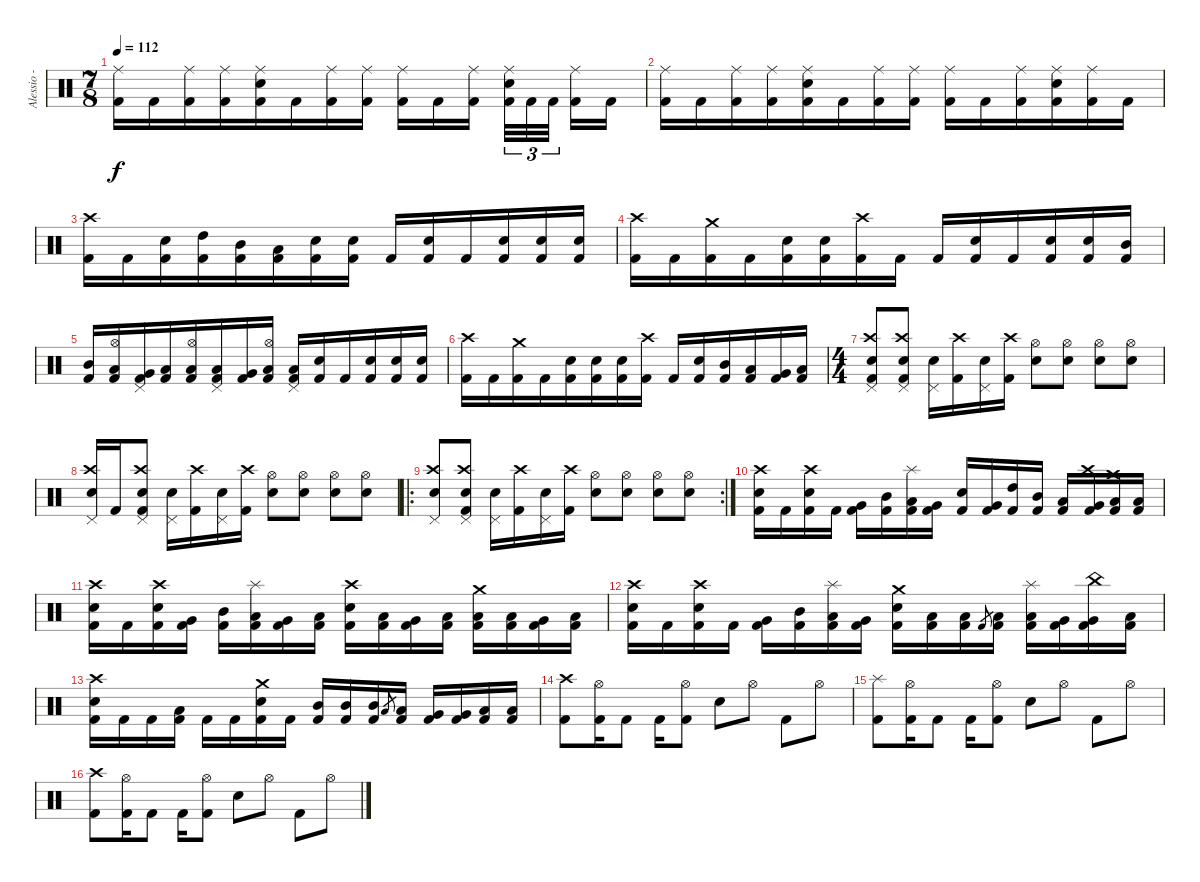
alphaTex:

\track ("Alessio - Drums" "Alessio - ") {instrument percussion}
\staff {score}
\articulation defaults
\ts (7 8)
\tempo 112
\clef neutral
\ks c
("Ride (middle)" "Kick (hit) 2").16{dy f} "Kick (hit) 2".16 ("Ride (middle)" "Kick (hit) 2").16 ("Ride (middle)" "Kick (hit) 2").16 ("Ride (middle)" "Electric Snare (hit)" "Kick (hit) 2").16 "Kick (hit) 2".16 ("Ride (middle)" "Kick (hit) 2").16 ("Ride (middle)" "Kick (hit) 2").16 ("Ride (middle)" "Kick (hit) 2").16 "Kick (hit) 2".16 ("Ride (middle)" "Kick (hit) 2").16 ("Ride (middle)" "Electric Snare (hit)" "Kick (hit) 2").32{tu (3 2)} "Kick (hit) 2".32{tu (3 2)} "Kick (hit) 2".32{tu (3 2)} ("Ride (middle)" "Kick (hit) 2").16 "Kick (hit) 2".16 |
("Ride (middle)" "Kick (hit) 2").16 "Kick (hit) 2".16 ("Ride (middle)" "Kick (hit) 2").16 ("Ride (middle)" "Kick (hit) 2").16 ("Ride (middle)" "Electric Snare (hit)" "Kick (hit) 2").16 "Kick (hit) 2".16 ("Ride (middle)" "Kick (hit) 2").16 ("Ride (middle)" "Kick (hit) 2").16 ("Ride (middle)" "Kick (hit) 2").16 "Kick (hit) 2".16 ("Ride (middle)" "Kick (hit) 2").16 ("Ride (middle)" "Electric Snare (hit)" "Kick (hit) 2").16 ("Ride (middle)" "Kick (hit) 2").16 "Kick (hit) 2".16 |
("Crash high (hit)" "Kick (hit) 2").16 "Kick (hit) 2".16 ("Electric Snare (hit)" "Kick (hit) 2").16 ("High Tom (hit)" "Kick (hit) 2").16 ("Mid Tom (hit)" "Kick (hit) 2").16 ("Low Tom (hit)" "Kick (hit) 2").16 ("Electric Snare (hit)" "Kick (hit) 2").16 ("Electric Snare (hit)" "Kick (hit) 2").16 "Kick (hit) 2".16 ("Electric Snare (hit)" "Kick (hit) 2").16 "Kick (hit) 2".16 ("Electric Snare (hit)" "Kick (hit) 2").16 ("Electric Snare (hit)" "Kick (hit) 2").16 ("Electric Snare (hit)" "Kick (hit) 2").16 |
("Crash high (hit)" "Kick (hit) 2").16 "Kick (hit) 2".16 ("Crash medium (hit)" "Kick (hit) 2").16 "Kick (hit) 2".16 ("Electric Snare (hit)" "Kick (hit) 2").16 ("Electric Snare (hit)" "Kick (hit) 2").16 ("Crash high (hit)" "Kick (hit) 2").16 "Kick (hit) 2".16 "Kick (hit) 2".16 ("Electric Snare (hit)" "Kick (hit) 2").16 "Kick (hit) 2".16 ("Electric Snare (hit)" "Kick (hit) 2").16 ("Electric Snare (hit)" "Kick (hit) 2").16 ("Mid Tom (hit)" "Kick (hit) 2").16 |
("Mid Tom (hit)" "Kick (hit) 2").16 ("Hi-Hat (open)" "Low Floor Tom (hit)" "Kick (hit) 2").16 ("Pedal Hi-Hat (hit)" "Very Low Tom (hit)" "Kick (hit) 2").16 ("Low Floor Tom (hit)" "Kick (hit) 2").16 ("Hi-Hat (open)" "Low Floor Tom (hit)" "Kick (hit) 2").16 ("Pedal Hi-Hat (hit)" "Low Floor Tom (hit)" "Kick (hit) 2").16 ("Very Low Tom (hit)" "Kick (hit) 2").16 ("Hi-Hat (open)" "Low Floor Tom (hit)" "Kick (hit) 2").16 ("Pedal Hi-Hat (hit)" "Low Floor Tom (hit)" "Kick (hit) 2").16 ("Electric Snare (hit)" "Kick (hit) 2").16 "Kick (hit) 2".16 ("Electric Snare (hit)" "Kick (hit) 2").16 ("Electric Snare (hit)" "Kick (hit) 2").16 ("Electric Snare (hit)" "Kick (hit) 2").16 |
("Crash high (hit)" "Kick (hit) 2").16 "Kick (hit) 2".16 ("Crash medium (hit)" "Kick (hit) 2").16 "Kick (hit) 2".16 ("Electric Snare (hit)" "Kick (hit) 2").16 ("Electric Snare (hit)" "Kick (hit) 2").16 ("Electric Snare (hit)" "Kick (hit) 2").16 ("Crash high (hit)" "Kick (hit) 2").16 "Kick (hit) 2".16 ("Electric Snare (hit)" "Kick (hit) 2").16 ("Mid Tom (hit)" "Kick (hit) 2").16 ("Low Tom (hit)" "Kick (hit) 2").16 ("Very Low Tom (hit)" "Kick (hit) 2").16 ("Low Tom (hit)" "Kick (hit) 2").16 |
\ts (4 4)
("Pedal Hi-Hat (hit)" "Crash high (hit)" "Electric Snare (hit)" "Kick (hit) 2").8 ("Pedal Hi-Hat (hit)" "Crash high (hit)" "Electric Snare (hit)" "Kick (hit) 2").8 ("Pedal Hi-Hat (hit)" "Electric Snare (hit)").16 ("Crash high (hit)" "Kick (hit) 2").16 ("Pedal Hi-Hat (hit)" "Electric Snare (hit)").16 ("Crash high (hit)" "Kick (hit) 2").16 ("Hi-Hat (open)" "Electric Snare (hit)").8 ("Hi-Hat (open)" "Electric Snare (hit)").8 ("Hi-Hat (open)" "Electric Snare (hit)").8 ("Hi-Hat (open)" "Electric Snare (hit)").8 |
("Pedal Hi-Hat (hit)" "Crash high (hit)" "Electric Snare (hit)").16 "Kick (hit) 2".16 ("Pedal Hi-Hat (hit)" "Crash high (hit)" "Electric Snare (hit)" "Kick (hit) 2").8 ("Pedal Hi-Hat (hit)" "Electric Snare (hit)").16 ("Crash high (hit)" "Kick (hit) 2").16 ("Pedal Hi-Hat (hit)" "Electric Snare (hit)").16 ("Crash high (hit)" "Kick (hit) 2").16 ("Hi-Hat (open)" "Electric Snare (hit)").8 ("Hi-Hat (open)" "Electric Snare (hit)").8 ("Hi-Hat (open)" "Electric Snare (hit)").8 ("Hi-Hat (open)" "Electric Snare (hit)").8 |
\ro
\rc 2
("Pedal Hi-Hat (hit)" "Crash high (hit)" "Electric Snare (hit)").8 ("Pedal Hi-Hat (hit)" "Crash high (hit)" "Electric Snare (hit)" "Kick (hit) 2").8 ("Pedal Hi-Hat (hit)" "Electric Snare (hit)").16 ("Crash high (hit)" "Kick (hit) 2").16 ("Pedal Hi-Hat (hit)" "Electric Snare (hit)").16 ("Crash high (hit)" "Kick (hit) 2").16 ("Hi-Hat (open)" "Electric Snare (hit)").8 ("Hi-Hat (open)" "Electric Snare (hit)").8 ("Hi-Hat (open)" "Electric Snare (hit)").8 ("Hi-Hat (open)" "Electric Snare (hit)").8 |
("Crash high (hit)" "Electric Snare (hit)" "Kick (hit) 2").16 "Kick (hit) 2".16 ("Crash high (hit)" "Electric Snare (hit)" "Kick (hit) 2").16 "Kick (hit) 2".16 ("Very Low Tom (hit)" "Kick (hit) 2").16 ("Mid Tom (hit)" "Kick (hit) 2").16 ("Splash (hit)" "Low Tom (hit)" "Kick (hit) 2").16 ("Very Low Tom (hit)" "Kick (hit) 2").16 ("Electric Snare (hit)" "Kick (hit) 2").16 ("Very Low Tom (hit)" "Kick (hit) 2").16 ("High Tom (hit)" "Kick (hit) 2").16 ("Mid Tom (hit)" "Kick (hit) 2").16 ("Low Tom (hit)" "Kick (hit) 2").16 ("Crash high (hit)" "Very Low Tom (hit)" "Kick (hit) 2").16 ("Crash medium (hit)" "Low Floor Tom (hit)" "Kick (hit) 2").16 ("Low Floor Tom (hit)" "Kick (hit) 2").16 |
("Crash high (hit)" "Electric Snare (hit)" "Kick (hit) 2").16 "Kick (hit) 2".16 ("Crash high (hit)" "Electric Snare (hit)" "Kick (hit) 2").16 ("Very Low Tom (hit)" "Kick (hit) 2").16 ("Mid Tom (hit)" "Kick (hit) 2").16 ("Splash (hit)" "Low Tom (hit)" "Kick (hit) 2").16 ("Very Low Tom (hit)" "Kick (hit) 2").16 ("Low Floor Tom (hit)" "Kick (hit) 2").16 ("Crash high (hit)" "Electric Snare (hit)" "Kick (hit) 2").16 ("Low Tom (hit)" "Kick (hit) 2").16 ("Very Low Tom (hit)" "Kick (hit) 2").16 ("Low Floor Tom (hit)" "Kick (hit) 2").16 ("Crash medium (hit)" "Low Tom (hit)" "Kick (hit) 2").16 ("Low Tom (hit)" "Kick (hit) 2").16 ("Very Low Tom (hit)" "Kick (hit) 2").16 ("Low Floor Tom (hit)" "Kick (hit) 2").16 |
("Crash high (hit)" "Electric Snare (hit)" "Kick (hit) 2").16 "Kick (hit) 2".16 ("Crash high (hit)" "Electric Snare (hit)" "Kick (hit) 2").16 "Kick (hit) 2".16 ("Very Low Tom (hit)" "Kick (hit) 2").16 ("Mid Tom (hit)" "Kick (hit) 2").16 ("Splash (hit)" "Low Tom (hit)" "Kick (hit) 2").16 ("Very Low Tom (hit)" "Kick (hit) 2").16 ("Crash medium (hit)" "Electric Snare (hit)" "Kick (hit) 2").16 ("Low Floor Tom (hit)" "Kick (hit) 2").16 ("Low Floor Tom (hit)" "Kick (hit) 2").16 "Kick (hit) 2".8{gr} ("Low Tom (hit)" "Kick (hit) 2").16 ("Splash (hit)" "Low Tom (hit)" "Kick (hit) 2").16 ("Very Low Tom (hit)" "Kick (hit) 2").16 ("China (hit)" "Very Low Tom (hit)" "Kick (hit) 2").16 ("Low Floor Tom (hit)" "Kick (hit) 2").16 |
("Crash high (hit)" "Electric Snare (hit)" "Kick (hit) 2").16 "Kick (hit) 2".16 "Kick (hit) 2".16 ("Low Tom (hit)" "Kick (hit) 2").16 "Kick (hit) 2".16 "Kick (hit) 2".16 ("Crash medium (hit)" "Electric Snare (hit)" "Kick (hit) 2").16 "Kick (hit) 2".16 ("Mid Tom (hit)" "Kick (hit) 2").16 ("Mid Tom (hit)" "Kick (hit) 2").16 ("Mid Tom (hit)" "Kick (hit) 2").16 "Low Tom (hit)".8{gr} ("Low Tom (hit)" "Kick (hit) 2").16 ("Very Low Tom (hit)" "Kick (hit) 2").16 ("Very Low Tom (hit)" "Kick (hit) 2").16 ("Low Floor Tom (hit)" "Kick (hit) 2").16 ("Low Floor Tom (hit)" "Kick (hit) 2").16 |
("Crash high (hit)" "Kick (hit) 2").8 ("Hi-Hat (open)" "Kick (hit) 2").16 "Kick (hit) 2".8 "Kick (hit) 2".16 ("Hi-Hat (open)" "Kick (hit) 2").8 "Electric Snare (hit)".8 "Hi-Hat (open)".8 "Kick (hit) 2".8 "Hi-Hat (open)".8 |
("Splash (hit)" "Kick (hit) 2").8 ("Hi-Hat (open)" "Kick (hit) 2").16 "Kick (hit) 2".8 "Kick (hit) 2".16 ("Hi-Hat (open)" "Kick (hit) 2").8 "Electric Snare (hit)".8 "Hi-Hat (open)".8 "Kick (hit) 2".8 "Hi-Hat (open)".8 |
("Crash high (hit)" "Kick (hit) 2").8 ("Hi-Hat (open)" "Kick (hit) 2").16 "Kick (hit) 2".8 "Kick (hit) 2".16 ("Hi-Hat (open)" "Kick (hit) 2").8 "Electric Snare (hit)".8 "Hi-Hat (open)".8 "Kick (hit) 2".8 "Hi-Hat (open)".8
